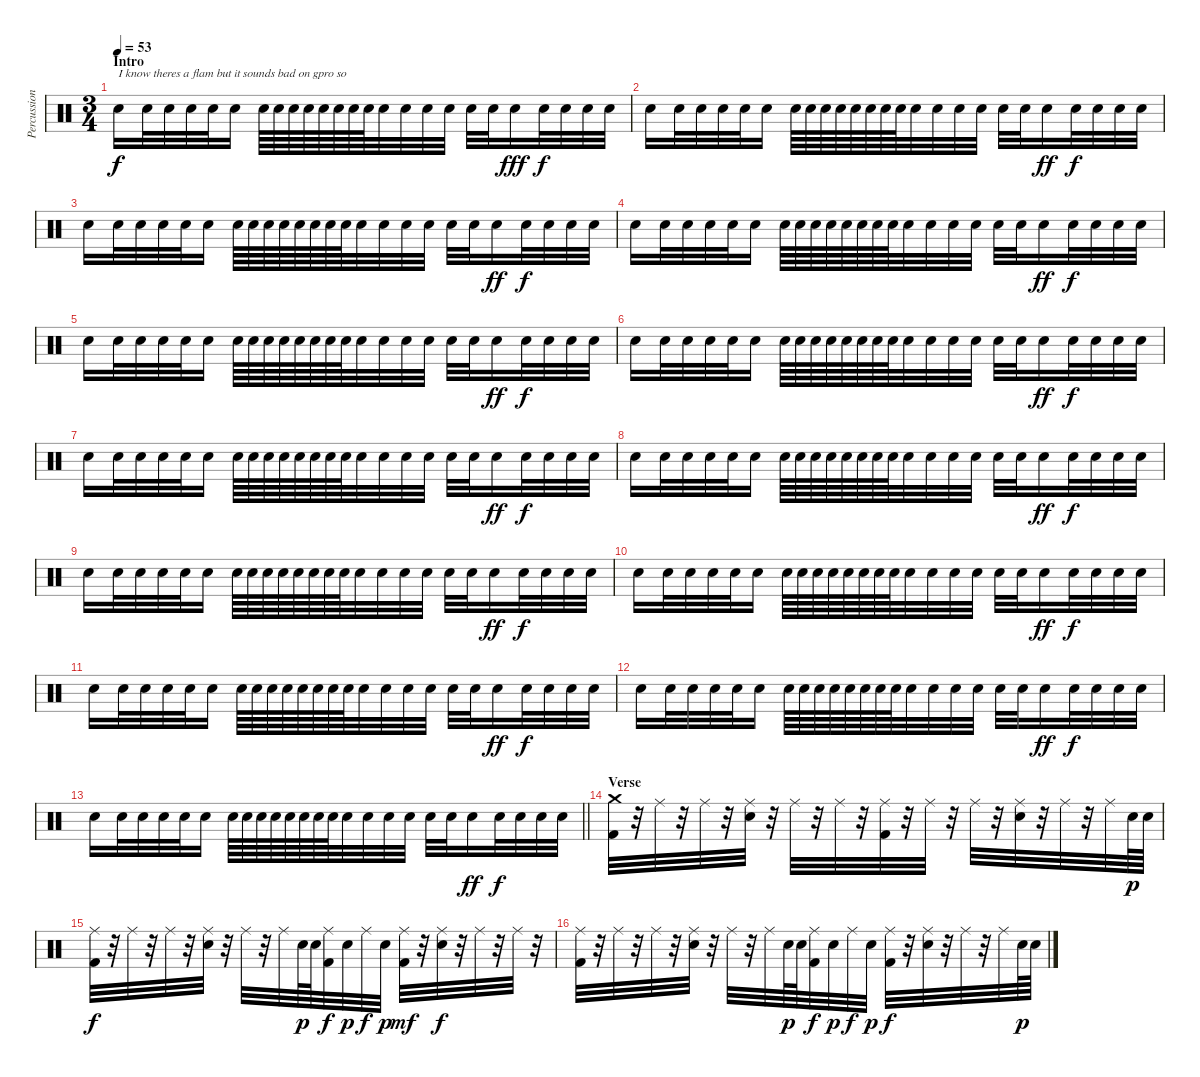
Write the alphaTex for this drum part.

\track ("Percussion" "Percussion") {instrument percussion}
\staff {score}
\articulation defaults
\ts (3 4)
\section ("" "Intro")
\tempo 53
\clef neutral
\ks c "Snare (hit) 2".16{txt "I know theres a flam but it sounds bad on gpro so" dy f volume 6} "Snare (hit) 2".32{volume 13} "Snare (hit) 2".32 "Snare (hit) 2".32 "Snare (hit) 2".32 "Snare (hit) 2".16 "Snare (hit) 2".64 "Snare (hit) 2".64 "Snare (hit) 2".64 "Snare (hit) 2".64 "Snare (hit) 2".64 "Snare (hit) 2".64 "Snare (hit) 2".64 "Snare (hit) 2".64 "Snare (hit) 2".32 "Snare (hit) 2".32 "Snare (hit) 2".32 "Snare (hit) 2".32 "Snare (hit) 2".32 "Snare (hit) 2".32 "Snare (hit) 2".16{dy fff} "Snare (hit) 2".32{dy f} "Snare (hit) 2".32 "Snare (hit) 2".32 "Snare (hit) 2".32
|
"Snare (hit) 2".16 "Snare (hit) 2".32 "Snare (hit) 2".32 "Snare (hit) 2".32 "Snare (hit) 2".32 "Snare (hit) 2".16 "Snare (hit) 2".64 "Snare (hit) 2".64 "Snare (hit) 2".64 "Snare (hit) 2".64 "Snare (hit) 2".64 "Snare (hit) 2".64 "Snare (hit) 2".64 "Snare (hit) 2".64 "Snare (hit) 2".32 "Snare (hit) 2".32 "Snare (hit) 2".32 "Snare (hit) 2".32 "Snare (hit) 2".32 "Snare (hit) 2".32 "Snare (hit) 2".16{dy ff} "Snare (hit) 2".32{dy f} "Snare (hit) 2".32 "Snare (hit) 2".32 "Snare (hit) 2".32 |
"Snare (hit) 2".16 "Snare (hit) 2".32 "Snare (hit) 2".32 "Snare (hit) 2".32 "Snare (hit) 2".32 "Snare (hit) 2".16 "Snare (hit) 2".64 "Snare (hit) 2".64 "Snare (hit) 2".64 "Snare (hit) 2".64 "Snare (hit) 2".64 "Snare (hit) 2".64 "Snare (hit) 2".64 "Snare (hit) 2".64 "Snare (hit) 2".32 "Snare (hit) 2".32 "Snare (hit) 2".32 "Snare (hit) 2".32 "Snare (hit) 2".32 "Snare (hit) 2".32 "Snare (hit) 2".16{dy ff} "Snare (hit) 2".32{dy f} "Snare (hit) 2".32 "Snare (hit) 2".32 "Snare (hit) 2".32 |
"Snare (hit) 2".16 "Snare (hit) 2".32 "Snare (hit) 2".32 "Snare (hit) 2".32 "Snare (hit) 2".32 "Snare (hit) 2".16 "Snare (hit) 2".64 "Snare (hit) 2".64 "Snare (hit) 2".64 "Snare (hit) 2".64 "Snare (hit) 2".64 "Snare (hit) 2".64 "Snare (hit) 2".64 "Snare (hit) 2".64 "Snare (hit) 2".32 "Snare (hit) 2".32 "Snare (hit) 2".32 "Snare (hit) 2".32 "Snare (hit) 2".32 "Snare (hit) 2".32 "Snare (hit) 2".16{dy ff} "Snare (hit) 2".32{dy f} "Snare (hit) 2".32 "Snare (hit) 2".32 "Snare (hit) 2".32 |
"Snare (hit) 2".16 "Snare (hit) 2".32 "Snare (hit) 2".32 "Snare (hit) 2".32 "Snare (hit) 2".32 "Snare (hit) 2".16 "Snare (hit) 2".64 "Snare (hit) 2".64 "Snare (hit) 2".64 "Snare (hit) 2".64 "Snare (hit) 2".64 "Snare (hit) 2".64 "Snare (hit) 2".64 "Snare (hit) 2".64 "Snare (hit) 2".32 "Snare (hit) 2".32 "Snare (hit) 2".32 "Snare (hit) 2".32 "Snare (hit) 2".32 "Snare (hit) 2".32 "Snare (hit) 2".16{dy ff} "Snare (hit) 2".32{dy f} "Snare (hit) 2".32 "Snare (hit) 2".32 "Snare (hit) 2".32 |
"Snare (hit) 2".16 "Snare (hit) 2".32 "Snare (hit) 2".32 "Snare (hit) 2".32 "Snare (hit) 2".32 "Snare (hit) 2".16 "Snare (hit) 2".64 "Snare (hit) 2".64 "Snare (hit) 2".64 "Snare (hit) 2".64 "Snare (hit) 2".64 "Snare (hit) 2".64 "Snare (hit) 2".64 "Snare (hit) 2".64 "Snare (hit) 2".32 "Snare (hit) 2".32 "Snare (hit) 2".32 "Snare (hit) 2".32 "Snare (hit) 2".32 "Snare (hit) 2".32 "Snare (hit) 2".16{dy ff} "Snare (hit) 2".32{dy f} "Snare (hit) 2".32 "Snare (hit) 2".32 "Snare (hit) 2".32 |
"Snare (hit) 2".16 "Snare (hit) 2".32 "Snare (hit) 2".32 "Snare (hit) 2".32 "Snare (hit) 2".32 "Snare (hit) 2".16 "Snare (hit) 2".64 "Snare (hit) 2".64 "Snare (hit) 2".64 "Snare (hit) 2".64 "Snare (hit) 2".64 "Snare (hit) 2".64 "Snare (hit) 2".64 "Snare (hit) 2".64 "Snare (hit) 2".32 "Snare (hit) 2".32 "Snare (hit) 2".32 "Snare (hit) 2".32 "Snare (hit) 2".32 "Snare (hit) 2".32 "Snare (hit) 2".16{dy ff} "Snare (hit) 2".32{dy f} "Snare (hit) 2".32 "Snare (hit) 2".32 "Snare (hit) 2".32 |
"Snare (hit) 2".16 "Snare (hit) 2".32 "Snare (hit) 2".32 "Snare (hit) 2".32 "Snare (hit) 2".32 "Snare (hit) 2".16 "Snare (hit) 2".64 "Snare (hit) 2".64 "Snare (hit) 2".64 "Snare (hit) 2".64 "Snare (hit) 2".64 "Snare (hit) 2".64 "Snare (hit) 2".64 "Snare (hit) 2".64 "Snare (hit) 2".32 "Snare (hit) 2".32 "Snare (hit) 2".32 "Snare (hit) 2".32 "Snare (hit) 2".32 "Snare (hit) 2".32 "Snare (hit) 2".16{dy ff} "Snare (hit) 2".32{dy f} "Snare (hit) 2".32 "Snare (hit) 2".32 "Snare (hit) 2".32 |
"Snare (hit) 2".16 "Snare (hit) 2".32 "Snare (hit) 2".32 "Snare (hit) 2".32 "Snare (hit) 2".32 "Snare (hit) 2".16 "Snare (hit) 2".64 "Snare (hit) 2".64 "Snare (hit) 2".64 "Snare (hit) 2".64 "Snare (hit) 2".64 "Snare (hit) 2".64 "Snare (hit) 2".64 "Snare (hit) 2".64 "Snare (hit) 2".32 "Snare (hit) 2".32 "Snare (hit) 2".32 "Snare (hit) 2".32 "Snare (hit) 2".32 "Snare (hit) 2".32 "Snare (hit) 2".16{dy ff} "Snare (hit) 2".32{dy f} "Snare (hit) 2".32 "Snare (hit) 2".32 "Snare (hit) 2".32 |
"Snare (hit) 2".16 "Snare (hit) 2".32 "Snare (hit) 2".32 "Snare (hit) 2".32 "Snare (hit) 2".32 "Snare (hit) 2".16 "Snare (hit) 2".64 "Snare (hit) 2".64 "Snare (hit) 2".64 "Snare (hit) 2".64 "Snare (hit) 2".64 "Snare (hit) 2".64 "Snare (hit) 2".64 "Snare (hit) 2".64 "Snare (hit) 2".32 "Snare (hit) 2".32 "Snare (hit) 2".32 "Snare (hit) 2".32 "Snare (hit) 2".32 "Snare (hit) 2".32 "Snare (hit) 2".16{dy ff} "Snare (hit) 2".32{dy f} "Snare (hit) 2".32 "Snare (hit) 2".32 "Snare (hit) 2".32 |
"Snare (hit) 2".16 "Snare (hit) 2".32 "Snare (hit) 2".32 "Snare (hit) 2".32 "Snare (hit) 2".32 "Snare (hit) 2".16 "Snare (hit) 2".64 "Snare (hit) 2".64 "Snare (hit) 2".64 "Snare (hit) 2".64 "Snare (hit) 2".64 "Snare (hit) 2".64 "Snare (hit) 2".64 "Snare (hit) 2".64 "Snare (hit) 2".32 "Snare (hit) 2".32 "Snare (hit) 2".32 "Snare (hit) 2".32 "Snare (hit) 2".32 "Snare (hit) 2".32 "Snare (hit) 2".16{dy ff} "Snare (hit) 2".32{dy f} "Snare (hit) 2".32 "Snare (hit) 2".32 "Snare (hit) 2".32 |
"Snare (hit) 2".16 "Snare (hit) 2".32 "Snare (hit) 2".32 "Snare (hit) 2".32 "Snare (hit) 2".32 "Snare (hit) 2".16 "Snare (hit) 2".64 "Snare (hit) 2".64 "Snare (hit) 2".64 "Snare (hit) 2".64 "Snare (hit) 2".64 "Snare (hit) 2".64 "Snare (hit) 2".64 "Snare (hit) 2".64 "Snare (hit) 2".32 "Snare (hit) 2".32 "Snare (hit) 2".32 "Snare (hit) 2".32 "Snare (hit) 2".32 "Snare (hit) 2".32 "Snare (hit) 2".16{dy ff} "Snare (hit) 2".32{dy f} "Snare (hit) 2".32 "Snare (hit) 2".32 "Snare (hit) 2".32 |
\barLineRight lightlight "Snare (hit) 2".16 "Snare (hit) 2".32 "Snare (hit) 2".32 "Snare (hit) 2".32 "Snare (hit) 2".32 "Snare (hit) 2".16 "Snare (hit) 2".64 "Snare (hit) 2".64 "Snare (hit) 2".64 "Snare (hit) 2".64 "Snare (hit) 2".64 "Snare (hit) 2".64 "Snare (hit) 2".64 "Snare (hit) 2".64 "Snare (hit) 2".32 "Snare (hit) 2".32 "Snare (hit) 2".32 "Snare (hit) 2".32 "Snare (hit) 2".32 "Snare (hit) 2".32 "Snare (hit) 2".16{dy ff} "Snare (hit) 2".32{dy f} "Snare (hit) 2".32 "Snare (hit) 2".32 "Snare (hit) 2".32
|
\section ("" "Verse")
("Crash medium (hit)" "Kick (hit) 2").32 r.32 "Ride (middle)".32 r.32 "Ride (middle)".32 r.32 ("Ride (middle)" "Snare (hit) 2").32 r.32 "Ride (middle)".32 r.32 "Ride (middle)".32 r.32 ("Ride (middle)" "Kick (hit) 2").32 r.32 "Ride (middle)".32 r.32 "Ride (middle)".32 r.32 ("Ride (middle)" "Snare (hit) 2").32 r.32 "Ride (middle)".32 r.32 "Ride (middle)".32 "Snare (hit) 2".64{dy p} "Snare (hit) 2".64 |
("Ride (middle)" "Kick (hit) 2").32{dy f} r.32 "Ride (middle)".32 r.32 "Ride (middle)".32 r.32 ("Ride (middle)" "Snare (hit) 2").32 r.32 "Ride (middle)".32 r.32 "Ride (middle)".32 "Snare (hit) 2".64{dy p} "Snare (hit) 2".64 ("Ride (middle)" "Kick (hit) 2").32{dy f} "Snare (hit) 2".32{dy p} "Ride (middle)".32{dy f} "Snare (hit) 2".32{dy p} ("Ride (middle)" "Kick (hit) 2").32{dy mf} r.32 ("Ride (middle)" "Snare (hit) 2").32{dy f} r.32 "Ride (middle)".32 r.32 "Ride (middle)".32 r.32 |
("Ride (middle)" "Kick (hit) 2").32 r.32 "Ride (middle)".32 r.32 "Ride (middle)".32 r.32 ("Ride (middle)" "Snare (hit) 2").32 r.32 "Ride (middle)".32 r.32 "Ride (middle)".32 "Snare (hit) 2".64{dy p} "Snare (hit) 2".64 ("Ride (middle)" "Kick (hit) 2").32{dy f} "Snare (hit) 2".32{dy p} "Ride (middle)".32{dy f} "Snare (hit) 2".32{dy p} ("Ride (middle)" "Kick (hit) 2").32{dy f} r.32 ("Ride (middle)" "Snare (hit) 2").32 r.32 "Ride (middle)".32 r.32 "Ride (middle)".32 "Snare (hit) 2".64{dy p} "Snare (hit) 2".64
